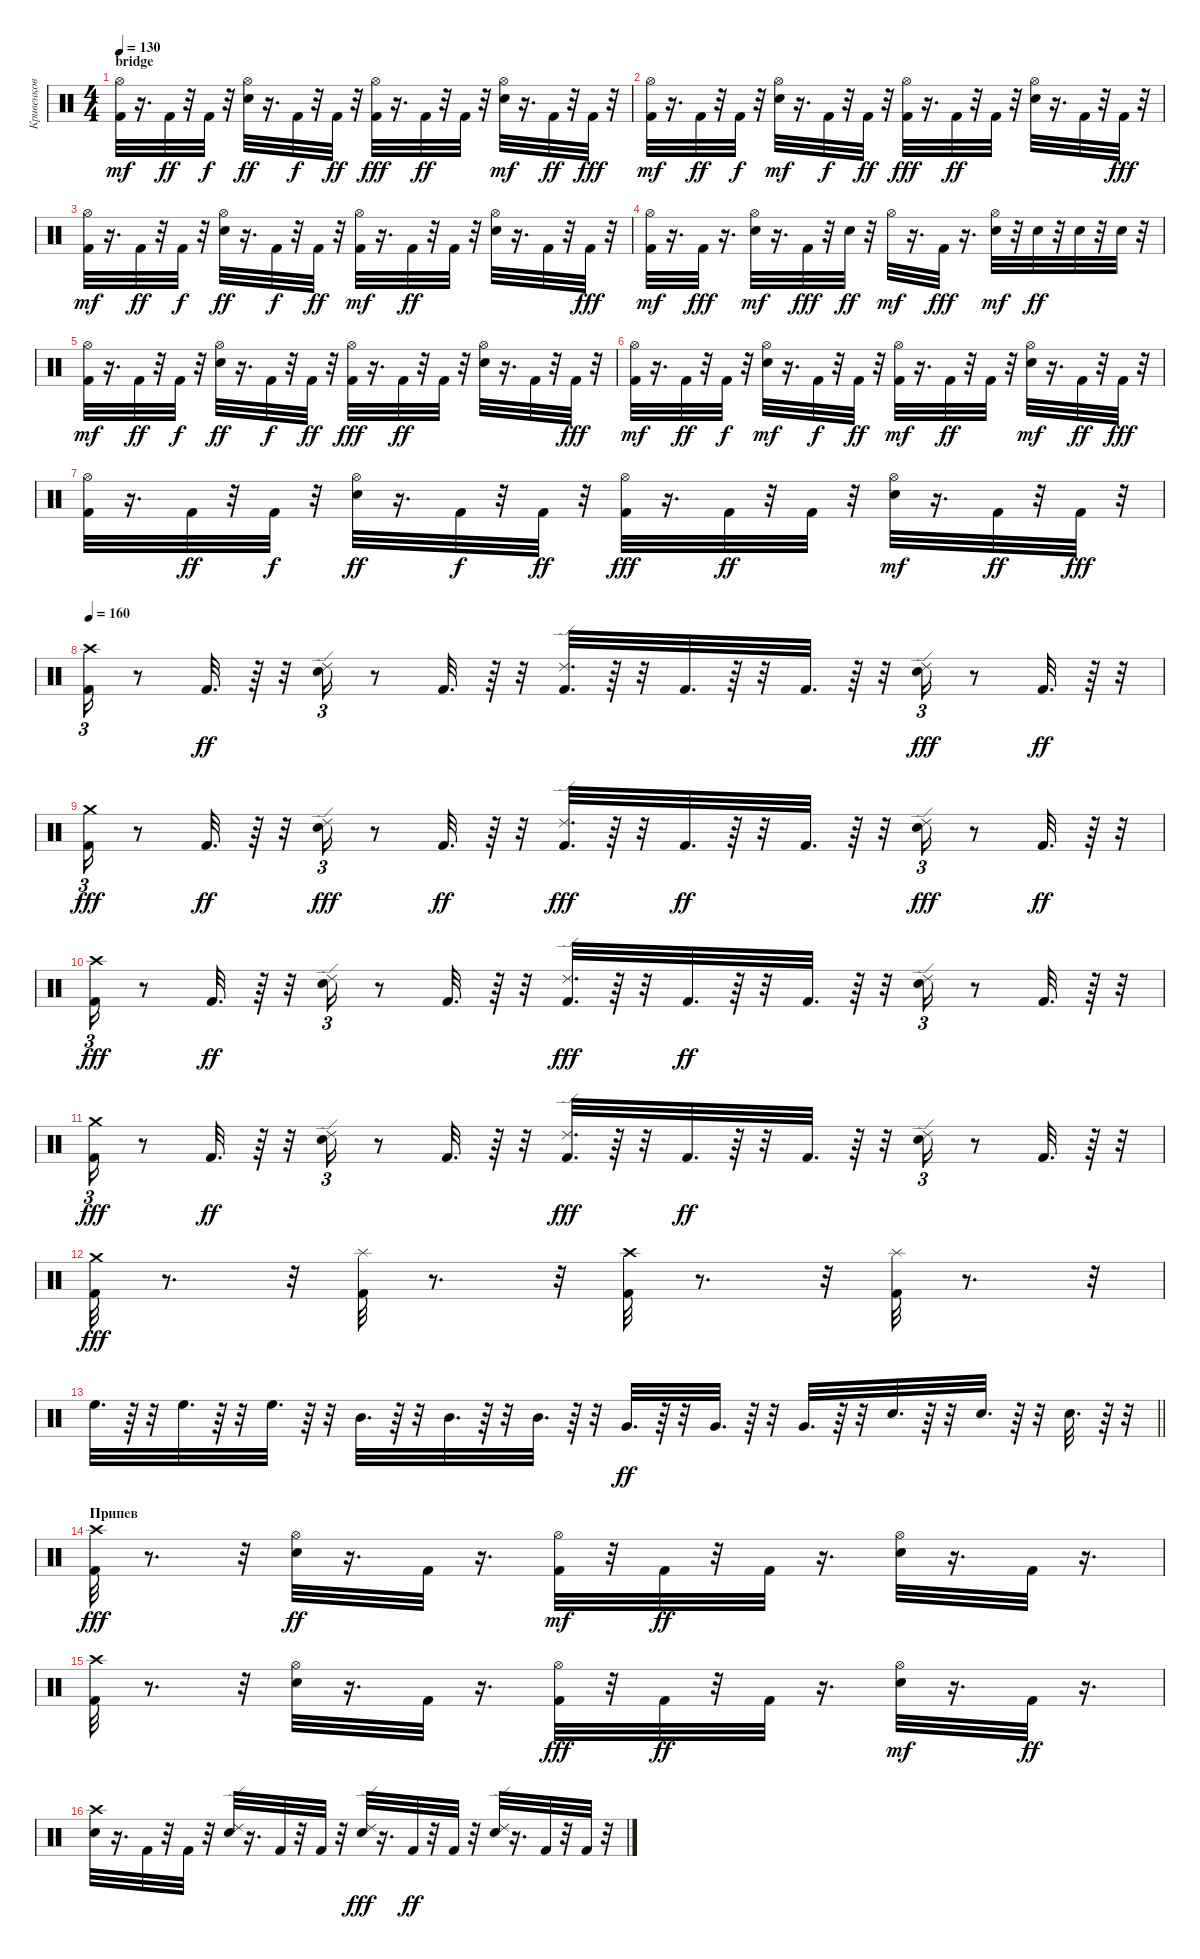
\track ("Кривенков" "Кривенков") {instrument percussion}
\staff {score}
\articulation defaults
\ts (4 4)
\section ("" "bridge")
\tempo 130
\clef neutral
\ks c
("Kick (hit) 2" "Hi-Hat (open)").32{dy mf} r.16{d} "Kick (hit) 2".32{dy ff} r.32 "Kick (hit) 2".32{dy f} r.32 ("Hi-Hat (open)" "Electric Snare (hit)").32{dy ff} r.16{d} "Kick (hit) 2".32{dy f} r.32 "Kick (hit) 2".32{dy ff} r.32 ("Hi-Hat (open)" "Kick (hit) 2").32{dy fff} r.16{d} "Kick (hit) 2".32{dy ff} r.32 "Kick (hit) 2".32 r.32 ("Electric Snare (hit)" "Hi-Hat (open)").32{dy mf} r.16{d} "Kick (hit) 2".32{dy ff} r.32 "Kick (hit) 2".32{dy fff} r.32 |
("Kick (hit) 2" "Hi-Hat (open)").32{dy mf} r.16{d} "Kick (hit) 2".32{dy ff} r.32 "Kick (hit) 2".32{dy f} r.32 ("Electric Snare (hit)" "Hi-Hat (open)").32{dy mf} r.16{d} "Kick (hit) 2".32{dy f} r.32 "Kick (hit) 2".32{dy ff} r.32 ("Hi-Hat (open)" "Kick (hit) 2").32{dy fff} r.16{d} "Kick (hit) 2".32{dy ff} r.32 "Kick (hit) 2".32 r.32 ("Hi-Hat (open)" "Electric Snare (hit)").32 r.16{d} "Kick (hit) 2".32 r.32 "Kick (hit) 2".32{dy fff} r.32 |
("Kick (hit) 2" "Hi-Hat (open)").32{dy mf} r.16{d} "Kick (hit) 2".32{dy ff} r.32 "Kick (hit) 2".32{dy f} r.32 ("Hi-Hat (open)" "Electric Snare (hit)").32{dy ff} r.16{d} "Kick (hit) 2".32{dy f} r.32 "Kick (hit) 2".32{dy ff} r.32 ("Kick (hit) 2" "Hi-Hat (open)").32{dy mf} r.16{d} "Kick (hit) 2".32{dy ff} r.32 "Kick (hit) 2".32 r.32 ("Hi-Hat (open)" "Electric Snare (hit)").32 r.16{d} "Kick (hit) 2".32 r.32 "Kick (hit) 2".32{dy fff} r.32 |
("Kick (hit) 2" "Hi-Hat (open)").32{dy mf} r.16{d} "Kick (hit) 2".32{dy fff} r.16{d} ("Electric Snare (hit)" "Hi-Hat (open)").32{dy mf} r.16{d} "Kick (hit) 2".32{dy fff} r.32 "Electric Snare (hit)".32{dy ff} r.32 "Hi-Hat (open)".32{dy mf} r.16{d} "Kick (hit) 2".32{dy fff} r.16{d} ("Electric Snare (hit)" "Hi-Hat (open)").32{dy mf} r.32 "Electric Snare (hit)".32{dy ff} r.32 "Electric Snare (hit)".32 r.32 "Electric Snare (hit)".32 r.32 |
("Kick (hit) 2" "Hi-Hat (open)").32{dy mf} r.16{d} "Kick (hit) 2".32{dy ff} r.32 "Kick (hit) 2".32{dy f} r.32 ("Hi-Hat (open)" "Electric Snare (hit)").32{dy ff} r.16{d} "Kick (hit) 2".32{dy f} r.32 "Kick (hit) 2".32{dy ff} r.32 ("Hi-Hat (open)" "Kick (hit) 2").32{dy fff} r.16{d} "Kick (hit) 2".32{dy ff} r.32 "Kick (hit) 2".32 r.32 ("Hi-Hat (open)" "Electric Snare (hit)").32 r.16{d} "Kick (hit) 2".32 r.32 "Kick (hit) 2".32{dy fff} r.32 |
("Kick (hit) 2" "Hi-Hat (open)").32{dy mf} r.16{d} "Kick (hit) 2".32{dy ff} r.32 "Kick (hit) 2".32{dy f} r.32 ("Electric Snare (hit)" "Hi-Hat (open)").32{dy mf} r.16{d} "Kick (hit) 2".32{dy f} r.32 "Kick (hit) 2".32{dy ff} r.32 ("Kick (hit) 2" "Hi-Hat (open)").32{dy mf} r.16{d} "Kick (hit) 2".32{dy ff} r.32 "Kick (hit) 2".32 r.32 ("Electric Snare (hit)" "Hi-Hat (open)").32{dy mf} r.16{d} "Kick (hit) 2".32{dy ff} r.32 "Kick (hit) 2".32{dy fff} r.32 |
("Hi-Hat (open)" "Kick (hit) 2").32 r.16{d} "Kick (hit) 2".32{dy ff} r.32 "Kick (hit) 2".32{dy f} r.32 ("Hi-Hat (open)" "Electric Snare (hit)").32{dy ff} r.16{d} "Kick (hit) 2".32{dy f} r.32 "Kick (hit) 2".32{dy ff} r.32 ("Hi-Hat (open)" "Kick (hit) 2").32{dy fff} r.16{d} "Kick (hit) 2".32{dy ff} r.32 "Kick (hit) 2".32 r.32 ("Electric Snare (hit)" "Hi-Hat (open)").32{dy mf} r.16{d} "Kick (hit) 2".32{dy ff} r.32 "Kick (hit) 2".32{dy fff} r.32 |
\tempo 160
("Crash high (hit)" "Kick (hit) 2").16{tu (3 2)} r.8 "Kick (hit) 2".32{d dy ff} r.64 r.32 ("Ride (edge) 2" "Electric Snare (hit)").16{tu (3 2)} r.8 "Kick (hit) 2".32{d} r.64 r.32 ("Ride (edge) 2" "Kick (hit) 2").32{d} r.64 r.32 "Kick (hit) 2".32{d} r.64 r.32 "Kick (hit) 2".32{d} r.64 r.32 ("Electric Snare (hit)" "Ride (edge) 2").16{tu (3 2) dy fff} r.8 "Kick (hit) 2".32{d dy ff} r.64 r.32 |
("Kick (hit) 2" "Crash medium (hit)").16{tu (3 2) dy fff} r.8 "Kick (hit) 2".32{d dy ff} r.64 r.32 ("Electric Snare (hit)" "Ride (edge) 2").16{tu (3 2) dy fff} r.8 "Kick (hit) 2".32{d dy ff} r.64 r.32 ("Kick (hit) 2" "Ride (edge) 2").32{d dy fff} r.64 r.32 "Kick (hit) 2".32{d dy ff} r.64 r.32 "Kick (hit) 2".32{d} r.64 r.32 ("Electric Snare (hit)" "Ride (edge) 2").16{tu (3 2) dy fff} r.8 "Kick (hit) 2".32{d dy ff} r.64 r.32 |
("Crash high (hit)" "Kick (hit) 2").16{tu (3 2) dy fff} r.8 "Kick (hit) 2".32{d dy ff} r.64 r.32 ("Ride (edge) 2" "Electric Snare (hit)").16{tu (3 2)} r.8 "Kick (hit) 2".32{d} r.64 r.32 ("Ride (edge) 2" "Kick (hit) 2").32{d dy fff} r.64 r.32 "Kick (hit) 2".32{d dy ff} r.64 r.32 "Kick (hit) 2".32{d} r.64 r.32 ("Ride (edge) 2" "Electric Snare (hit)").16{tu (3 2)} r.8 "Kick (hit) 2".32{d} r.64 r.32 |
("Crash medium (hit)" "Kick (hit) 2").16{tu (3 2) dy fff} r.8 "Kick (hit) 2".32{d dy ff} r.64 r.32 ("Ride (edge) 2" "Electric Snare (hit)").16{tu (3 2)} r.8 "Kick (hit) 2".32{d} r.64 r.32 ("Ride (edge) 2" "Kick (hit) 2").32{d dy fff} r.64 r.32 "Kick (hit) 2".32{d dy ff} r.64 r.32 "Kick (hit) 2".32{d} r.64 r.32 ("Ride (edge) 2" "Electric Snare (hit)").16{tu (3 2)} r.8 "Kick (hit) 2".32{d} r.64 r.32 |
("Crash medium (hit)" "Kick (hit) 2").32{dy fff} r.8{d} r.32 ("Kick (hit) 2" "Splash (hit)").32 r.8{d} r.32 ("Kick (hit) 2" "Crash high (hit)").32 r.8{d} r.32 ("Splash (hit)" "Kick (hit) 2").32 r.8{d} r.32 |
\barLineRight lightlight "High Floor Tom (hit)".32{d}
r.64 r.32 "High Floor Tom (hit)".32{d} r.64 r.32 "High Floor Tom (hit)".32{d} r.64 r.32 "Mid Tom (hit)".32{d} r.64 r.32 "Mid Tom (hit)".32{d} r.64 r.32 "Mid Tom (hit)".32{d} r.64 r.32 "Very Low Tom (hit)".32{d dy ff} r.64 r.32 "Very Low Tom (hit)".32{d} r.64 r.32 "Very Low Tom (hit)".32{d} r.64 r.32 "Electric Snare (hit)".32{d} r.64 r.32 "Electric Snare (hit)".32{d} r.64 r.32 "Electric Snare (hit)".32{d} r.64 r.32 |
\section ("" "Припев")
("Kick (hit) 2" "Crash high (hit)").32{dy fff} r.8{d} r.32 ("Hi-Hat (open)" "Electric Snare (hit)").32{dy ff} r.16{d} "Kick (hit) 2".32 r.16{d} ("Kick (hit) 2" "Hi-Hat (open)").32{dy mf} r.32 "Kick (hit) 2".32{dy ff} r.32 "Kick (hit) 2".32 r.16{d} ("Hi-Hat (open)" "Electric Snare (hit)").32 r.16{d} "Kick (hit) 2".32 r.16{d} |
("Kick (hit) 2" "Crash high (hit)").32 r.8{d} r.32 ("Hi-Hat (open)" "Electric Snare (hit)").32 r.16{d} "Kick (hit) 2".32 r.16{d} ("Hi-Hat (open)" "Kick (hit) 2").32{dy fff} r.32 "Kick (hit) 2".32{dy ff} r.32 "Kick (hit) 2".32 r.16{d} ("Electric Snare (hit)" "Hi-Hat (open)").32{dy mf} r.16{d} "Kick (hit) 2".32{dy ff} r.16{d} |
("Crash high (hit)" "Electric Snare (hit)").32 r.16{d} "Kick (hit) 2".32 r.32 "Kick (hit) 2".32 r.32 ("Ride (edge) 2" "Electric Snare (hit)").32 r.16{d} "Kick (hit) 2".32 r.32 "Kick (hit) 2".32 r.32 ("Electric Snare (hit)" "Ride (edge) 2").32{dy fff} r.16{d} "Kick (hit) 2".32{dy ff} r.32 "Kick (hit) 2".32 r.32 ("Ride (edge) 2" "Electric Snare (hit)").32 r.16{d} "Kick (hit) 2".32 r.32 "Kick (hit) 2".32 r.32
